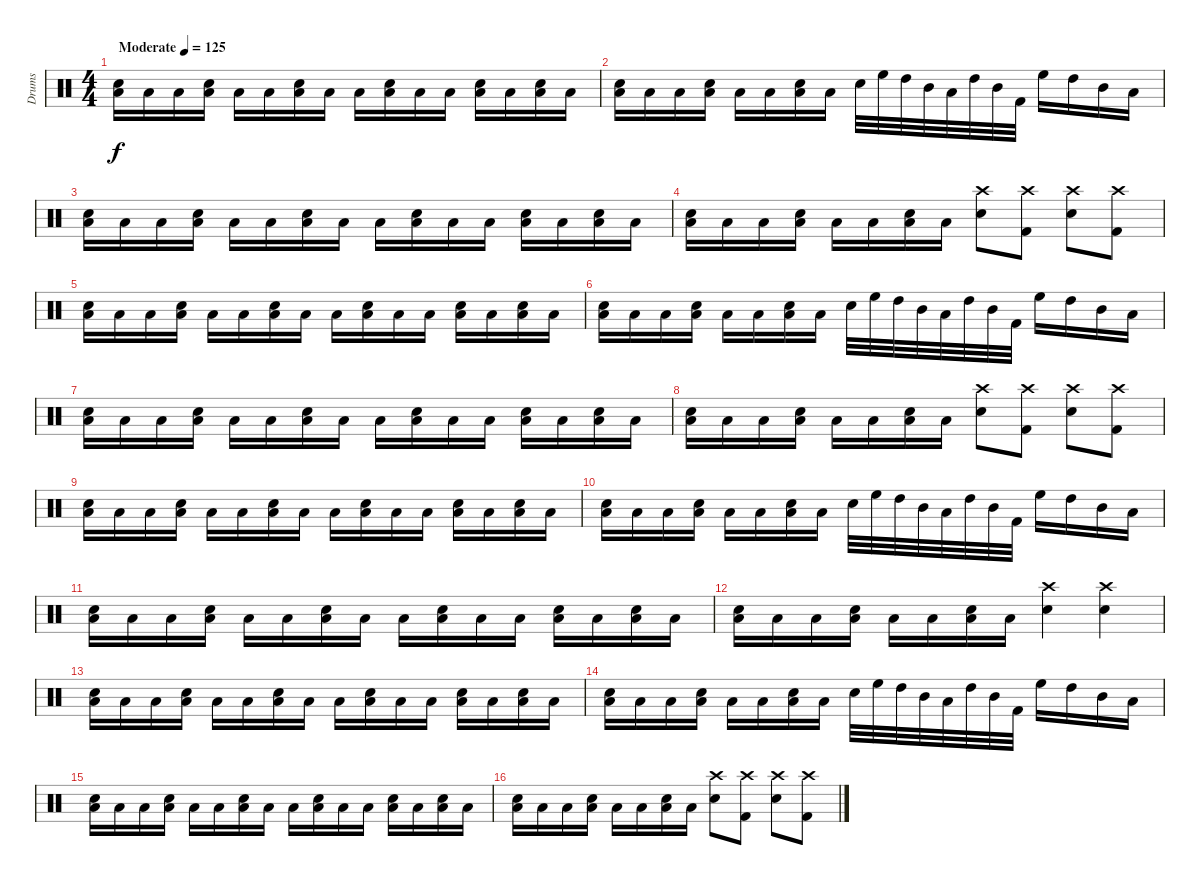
\track ("Drums" "Drums") {instrument percussion}
\staff {score}
\articulation defaults
\ts (4 4)
\tempo (125 "Moderate")
\clef neutral
\ks c
("Low Floor Tom (hit)" "Electric Snare (hit)").16{dy f} "Low Floor Tom (hit)".16 "Low Floor Tom (hit)".16 ("Low Floor Tom (hit)" "Electric Snare (hit)").16 "Low Floor Tom (hit)".16 "Low Floor Tom (hit)".16 ("Low Floor Tom (hit)" "Electric Snare (hit)").16 "Low Floor Tom (hit)".16 "Low Floor Tom (hit)".16 ("Low Floor Tom (hit)" "Electric Snare (hit)").16 "Low Floor Tom (hit)".16 "Low Floor Tom (hit)".16 ("Low Floor Tom (hit)" "Electric Snare (hit)").16 "Low Floor Tom (hit)".16 ("Low Floor Tom (hit)" "Electric Snare (hit)").16 "Low Floor Tom (hit)".16 |
("Low Floor Tom (hit)" "Electric Snare (hit)").16 "Low Floor Tom (hit)".16 "Low Floor Tom (hit)".16 ("Low Floor Tom (hit)" "Electric Snare (hit)").16 "Low Floor Tom (hit)".16 "Low Floor Tom (hit)".16 ("Low Floor Tom (hit)" "Electric Snare (hit)").16 "Low Floor Tom (hit)".16 "Electric Snare (hit)".32 "High Floor Tom (hit)".32 "High Tom (hit)".32 "Mid Tom (hit)".32 "Low Tom (hit)".32 "High Tom (hit)".32 "Mid Tom (hit)".32 "Kick (hit) 2".32 "High Floor Tom (hit)".16 "High Tom (hit)".16 "Mid Tom (hit)".16 "Low Tom (hit)".16 |
("Low Floor Tom (hit)" "Electric Snare (hit)").16 "Low Floor Tom (hit)".16 "Low Floor Tom (hit)".16 ("Low Floor Tom (hit)" "Electric Snare (hit)").16 "Low Floor Tom (hit)".16 "Low Floor Tom (hit)".16 ("Low Floor Tom (hit)" "Electric Snare (hit)").16 "Low Floor Tom (hit)".16 "Low Floor Tom (hit)".16 ("Low Floor Tom (hit)" "Electric Snare (hit)").16 "Low Floor Tom (hit)".16 "Low Floor Tom (hit)".16 ("Low Floor Tom (hit)" "Electric Snare (hit)").16 "Low Floor Tom (hit)".16 ("Low Floor Tom (hit)" "Electric Snare (hit)").16 "Low Floor Tom (hit)".16 |
("Low Floor Tom (hit)" "Electric Snare (hit)").16 "Low Floor Tom (hit)".16 "Low Floor Tom (hit)".16 ("Low Floor Tom (hit)" "Electric Snare (hit)").16 "Low Floor Tom (hit)".16 "Low Floor Tom (hit)".16 ("Low Floor Tom (hit)" "Electric Snare (hit)").16 "Low Floor Tom (hit)".16 ("Crash high (hit)" "Electric Snare (hit)").8 ("Crash high (hit)" "Kick (hit) 2").8 ("Crash high (hit)" "Electric Snare (hit)").8 ("Crash high (hit)" "Kick (hit) 2").8 |
("Low Floor Tom (hit)" "Electric Snare (hit)").16 "Low Floor Tom (hit)".16 "Low Floor Tom (hit)".16 ("Low Floor Tom (hit)" "Electric Snare (hit)").16 "Low Floor Tom (hit)".16 "Low Floor Tom (hit)".16 ("Low Floor Tom (hit)" "Electric Snare (hit)").16 "Low Floor Tom (hit)".16 "Low Floor Tom (hit)".16 ("Low Floor Tom (hit)" "Electric Snare (hit)").16 "Low Floor Tom (hit)".16 "Low Floor Tom (hit)".16 ("Low Floor Tom (hit)" "Electric Snare (hit)").16 "Low Floor Tom (hit)".16 ("Low Floor Tom (hit)" "Electric Snare (hit)").16 "Low Floor Tom (hit)".16 |
("Low Floor Tom (hit)" "Electric Snare (hit)").16 "Low Floor Tom (hit)".16 "Low Floor Tom (hit)".16 ("Low Floor Tom (hit)" "Electric Snare (hit)").16 "Low Floor Tom (hit)".16 "Low Floor Tom (hit)".16 ("Low Floor Tom (hit)" "Electric Snare (hit)").16 "Low Floor Tom (hit)".16 "Electric Snare (hit)".32 "High Floor Tom (hit)".32 "High Tom (hit)".32 "Mid Tom (hit)".32 "Low Tom (hit)".32 "High Tom (hit)".32 "Mid Tom (hit)".32 "Kick (hit) 2".32 "High Floor Tom (hit)".16 "High Tom (hit)".16 "Mid Tom (hit)".16 "Low Tom (hit)".16 |
("Low Floor Tom (hit)" "Electric Snare (hit)").16 "Low Floor Tom (hit)".16 "Low Floor Tom (hit)".16 ("Low Floor Tom (hit)" "Electric Snare (hit)").16 "Low Floor Tom (hit)".16 "Low Floor Tom (hit)".16 ("Low Floor Tom (hit)" "Electric Snare (hit)").16 "Low Floor Tom (hit)".16 "Low Floor Tom (hit)".16 ("Low Floor Tom (hit)" "Electric Snare (hit)").16 "Low Floor Tom (hit)".16 "Low Floor Tom (hit)".16 ("Low Floor Tom (hit)" "Electric Snare (hit)").16 "Low Floor Tom (hit)".16 ("Low Floor Tom (hit)" "Electric Snare (hit)").16 "Low Floor Tom (hit)".16 |
("Low Floor Tom (hit)" "Electric Snare (hit)").16 "Low Floor Tom (hit)".16 "Low Floor Tom (hit)".16 ("Low Floor Tom (hit)" "Electric Snare (hit)").16 "Low Floor Tom (hit)".16 "Low Floor Tom (hit)".16 ("Low Floor Tom (hit)" "Electric Snare (hit)").16 "Low Floor Tom (hit)".16 ("Crash high (hit)" "Electric Snare (hit)").8 ("Crash high (hit)" "Kick (hit) 2").8 ("Crash high (hit)" "Electric Snare (hit)").8 ("Crash high (hit)" "Kick (hit) 2").8 |
("Low Floor Tom (hit)" "Electric Snare (hit)").16 "Low Floor Tom (hit)".16 "Low Floor Tom (hit)".16 ("Low Floor Tom (hit)" "Electric Snare (hit)").16 "Low Floor Tom (hit)".16 "Low Floor Tom (hit)".16 ("Low Floor Tom (hit)" "Electric Snare (hit)").16 "Low Floor Tom (hit)".16 "Low Floor Tom (hit)".16 ("Low Floor Tom (hit)" "Electric Snare (hit)").16 "Low Floor Tom (hit)".16 "Low Floor Tom (hit)".16 ("Low Floor Tom (hit)" "Electric Snare (hit)").16 "Low Floor Tom (hit)".16 ("Low Floor Tom (hit)" "Electric Snare (hit)").16 "Low Floor Tom (hit)".16 |
("Low Floor Tom (hit)" "Electric Snare (hit)").16 "Low Floor Tom (hit)".16 "Low Floor Tom (hit)".16 ("Low Floor Tom (hit)" "Electric Snare (hit)").16 "Low Floor Tom (hit)".16 "Low Floor Tom (hit)".16 ("Low Floor Tom (hit)" "Electric Snare (hit)").16 "Low Floor Tom (hit)".16 "Electric Snare (hit)".32 "High Floor Tom (hit)".32 "High Tom (hit)".32 "Mid Tom (hit)".32 "Low Tom (hit)".32 "High Tom (hit)".32 "Mid Tom (hit)".32 "Kick (hit) 2".32 "High Floor Tom (hit)".16 "High Tom (hit)".16 "Mid Tom (hit)".16 "Low Tom (hit)".16 |
("Low Floor Tom (hit)" "Electric Snare (hit)").16 "Low Floor Tom (hit)".16 "Low Floor Tom (hit)".16 ("Low Floor Tom (hit)" "Electric Snare (hit)").16 "Low Floor Tom (hit)".16 "Low Floor Tom (hit)".16 ("Low Floor Tom (hit)" "Electric Snare (hit)").16 "Low Floor Tom (hit)".16 "Low Floor Tom (hit)".16 ("Low Floor Tom (hit)" "Electric Snare (hit)").16 "Low Floor Tom (hit)".16 "Low Floor Tom (hit)".16 ("Low Floor Tom (hit)" "Electric Snare (hit)").16 "Low Floor Tom (hit)".16 ("Low Floor Tom (hit)" "Electric Snare (hit)").16 "Low Floor Tom (hit)".16 |
("Low Floor Tom (hit)" "Electric Snare (hit)").16 "Low Floor Tom (hit)".16 "Low Floor Tom (hit)".16 ("Low Floor Tom (hit)" "Electric Snare (hit)").16 "Low Floor Tom (hit)".16 "Low Floor Tom (hit)".16 ("Low Floor Tom (hit)" "Electric Snare (hit)").16 "Low Floor Tom (hit)".16 ("Crash high (hit)" "Electric Snare (hit)").4 ("Crash high (hit)" "Electric Snare (hit)").4 |
("Low Floor Tom (hit)" "Electric Snare (hit)").16 "Low Floor Tom (hit)".16 "Low Floor Tom (hit)".16 ("Low Floor Tom (hit)" "Electric Snare (hit)").16 "Low Floor Tom (hit)".16 "Low Floor Tom (hit)".16 ("Low Floor Tom (hit)" "Electric Snare (hit)").16 "Low Floor Tom (hit)".16 "Low Floor Tom (hit)".16 ("Low Floor Tom (hit)" "Electric Snare (hit)").16 "Low Floor Tom (hit)".16 "Low Floor Tom (hit)".16 ("Low Floor Tom (hit)" "Electric Snare (hit)").16 "Low Floor Tom (hit)".16 ("Low Floor Tom (hit)" "Electric Snare (hit)").16 "Low Floor Tom (hit)".16 |
("Low Floor Tom (hit)" "Electric Snare (hit)").16 "Low Floor Tom (hit)".16 "Low Floor Tom (hit)".16 ("Low Floor Tom (hit)" "Electric Snare (hit)").16 "Low Floor Tom (hit)".16 "Low Floor Tom (hit)".16 ("Low Floor Tom (hit)" "Electric Snare (hit)").16 "Low Floor Tom (hit)".16 "Electric Snare (hit)".32 "High Floor Tom (hit)".32 "High Tom (hit)".32 "Mid Tom (hit)".32 "Low Tom (hit)".32 "High Tom (hit)".32 "Mid Tom (hit)".32 "Kick (hit) 2".32 "High Floor Tom (hit)".16 "High Tom (hit)".16 "Mid Tom (hit)".16 "Low Tom (hit)".16 |
("Low Floor Tom (hit)" "Electric Snare (hit)").16 "Low Floor Tom (hit)".16 "Low Floor Tom (hit)".16 ("Low Floor Tom (hit)" "Electric Snare (hit)").16 "Low Floor Tom (hit)".16 "Low Floor Tom (hit)".16 ("Low Floor Tom (hit)" "Electric Snare (hit)").16 "Low Floor Tom (hit)".16 "Low Floor Tom (hit)".16 ("Low Floor Tom (hit)" "Electric Snare (hit)").16 "Low Floor Tom (hit)".16 "Low Floor Tom (hit)".16 ("Low Floor Tom (hit)" "Electric Snare (hit)").16 "Low Floor Tom (hit)".16 ("Low Floor Tom (hit)" "Electric Snare (hit)").16 "Low Floor Tom (hit)".16 |
("Low Floor Tom (hit)" "Electric Snare (hit)").16 "Low Floor Tom (hit)".16 "Low Floor Tom (hit)".16 ("Low Floor Tom (hit)" "Electric Snare (hit)").16 "Low Floor Tom (hit)".16 "Low Floor Tom (hit)".16 ("Low Floor Tom (hit)" "Electric Snare (hit)").16 "Low Floor Tom (hit)".16 ("Crash high (hit)" "Electric Snare (hit)").8 ("Crash high (hit)" "Kick (hit) 2").8 ("Crash high (hit)" "Electric Snare (hit)").8 ("Crash high (hit)" "Kick (hit) 2").8
